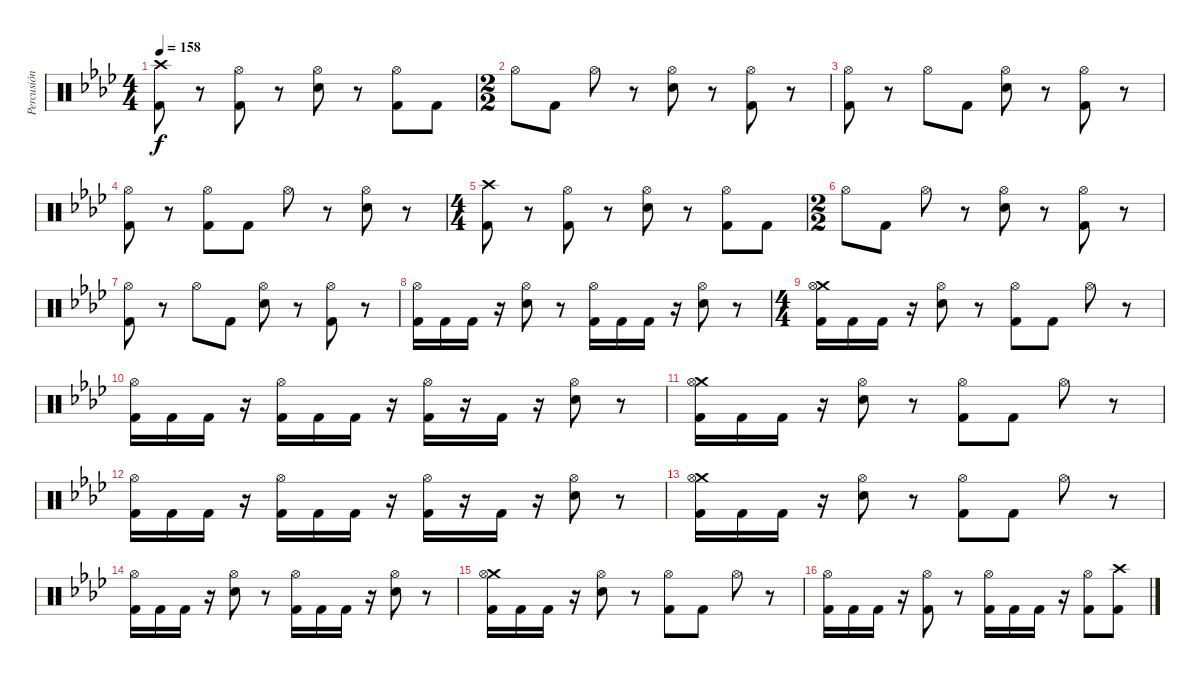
\track ("Percusión" "Percusión") {instrument percussion}
\staff {score}
\articulation defaults
\ts (4 4)
\tempo 158
\clef neutral
\ks ab
("Crash high (hit)" "Kick (hit) 2").8{dy f} r.8 ("Hi-Hat (open)" "Kick (hit) 2").8 r.8 ("Hi-Hat (open)" "Snare (hit) 2").8 r.8 ("Hi-Hat (open)" "Kick (hit) 2").8 "Kick (hit) 2".8 |
\ts (2 2)
"Hi-Hat (open)".8 "Kick (hit) 2".8 "Hi-Hat (open)".8 r.8 ("Hi-Hat (open)" "Snare (hit) 2").8 r.8 ("Hi-Hat (open)" "Kick (hit) 2").8 r.8 |
("Hi-Hat (open)" "Kick (hit) 2").8 r.8 "Hi-Hat (open)".8 "Kick (hit) 2".8 ("Hi-Hat (open)" "Snare (hit) 2").8 r.8 ("Hi-Hat (open)" "Kick (hit) 2").8 r.8 |
("Hi-Hat (open)" "Kick (hit) 2").8 r.8 ("Hi-Hat (open)" "Kick (hit) 2").8 "Kick (hit) 2".8 "Hi-Hat (open)".8 r.8 ("Hi-Hat (open)" "Snare (hit) 2").8 r.8 |
\ts (4 4)
("Crash high (hit)" "Kick (hit) 2").8 r.8 ("Hi-Hat (open)" "Kick (hit) 2").8 r.8 ("Hi-Hat (open)" "Snare (hit) 2").8 r.8 ("Hi-Hat (open)" "Kick (hit) 2").8 "Kick (hit) 2".8 |
\ts (2 2)
"Hi-Hat (open)".8 "Kick (hit) 2".8 "Hi-Hat (open)".8 r.8 ("Hi-Hat (open)" "Snare (hit) 2").8 r.8 ("Hi-Hat (open)" "Kick (hit) 2").8 r.8 |
("Hi-Hat (open)" "Kick (hit) 2").8 r.8 "Hi-Hat (open)".8 "Kick (hit) 2".8 ("Hi-Hat (open)" "Snare (hit) 2").8 r.8 ("Hi-Hat (open)" "Kick (hit) 2").8 r.8 |
("Hi-Hat (open)" "Kick (hit) 2").16 "Kick (hit) 2".16 "Kick (hit) 2".16 r.16 ("Hi-Hat (open)" "Snare (hit) 2").8 r.8 ("Hi-Hat (open)" "Kick (hit) 2").16 "Kick (hit) 2".16 "Kick (hit) 2".16 r.16 ("Hi-Hat (open)" "Snare (hit) 2").8 r.8 |
\ts (4 4)
("Crash medium (hit)" "Hi-Hat (open)" "Kick (hit) 2").16 "Kick (hit) 2".16 "Kick (hit) 2".16 r.16 ("Hi-Hat (open)" "Snare (hit) 2").8 r.8 ("Hi-Hat (open)" "Kick (hit) 2").8 "Kick (hit) 2".8 "Hi-Hat (open)".8 r.8 |
("Hi-Hat (open)" "Kick (hit) 2").16 "Kick (hit) 2".16 "Kick (hit) 2".16 r.16 ("Hi-Hat (open)" "Kick (hit) 2").16 "Kick (hit) 2".16 "Kick (hit) 2".16 r.16 ("Hi-Hat (open)" "Kick (hit) 2").16 r.16 "Kick (hit) 2".16 r.16 ("Hi-Hat (open)" "Snare (hit) 2").8 r.8 |
("Crash medium (hit)" "Hi-Hat (open)" "Kick (hit) 2").16 "Kick (hit) 2".16 "Kick (hit) 2".16 r.16 ("Hi-Hat (open)" "Snare (hit) 2").8 r.8 ("Hi-Hat (open)" "Kick (hit) 2").8 "Kick (hit) 2".8 "Hi-Hat (open)".8 r.8 |
("Hi-Hat (open)" "Kick (hit) 2").16 "Kick (hit) 2".16 "Kick (hit) 2".16 r.16 ("Hi-Hat (open)" "Kick (hit) 2").16 "Kick (hit) 2".16 "Kick (hit) 2".16 r.16 ("Hi-Hat (open)" "Kick (hit) 2").16 r.16 "Kick (hit) 2".16 r.16 ("Hi-Hat (open)" "Snare (hit) 2").8 r.8 |
("Crash medium (hit)" "Hi-Hat (open)" "Kick (hit) 2").16 "Kick (hit) 2".16 "Kick (hit) 2".16 r.16 ("Hi-Hat (open)" "Snare (hit) 2").8 r.8 ("Hi-Hat (open)" "Kick (hit) 2").8 "Kick (hit) 2".8 "Hi-Hat (open)".8 r.8 |
("Hi-Hat (open)" "Kick (hit) 2").16 "Kick (hit) 2".16 "Kick (hit) 2".16 r.16 ("Hi-Hat (open)" "Snare (hit) 2").8 r.8 ("Hi-Hat (open)" "Kick (hit) 2").16 "Kick (hit) 2".16 "Kick (hit) 2".16 r.16 ("Hi-Hat (open)" "Snare (hit) 2").8 r.8 |
("Crash medium (hit)" "Hi-Hat (open)" "Kick (hit) 2").16 "Kick (hit) 2".16 "Kick (hit) 2".16 r.16 ("Hi-Hat (open)" "Snare (hit) 2").8 r.8 ("Hi-Hat (open)" "Kick (hit) 2").8 "Kick (hit) 2".8 "Hi-Hat (open)".8 r.8 |
("Hi-Hat (open)" "Kick (hit) 2").16 "Kick (hit) 2".16 "Kick (hit) 2".16 r.16 ("Hi-Hat (open)" "Kick (hit) 2").8 r.8 ("Hi-Hat (open)" "Kick (hit) 2").16 "Kick (hit) 2".16 "Kick (hit) 2".16 r.16 ("Hi-Hat (open)" "Kick (hit) 2").8 ("Crash high (hit)" "Kick (hit) 2").8
